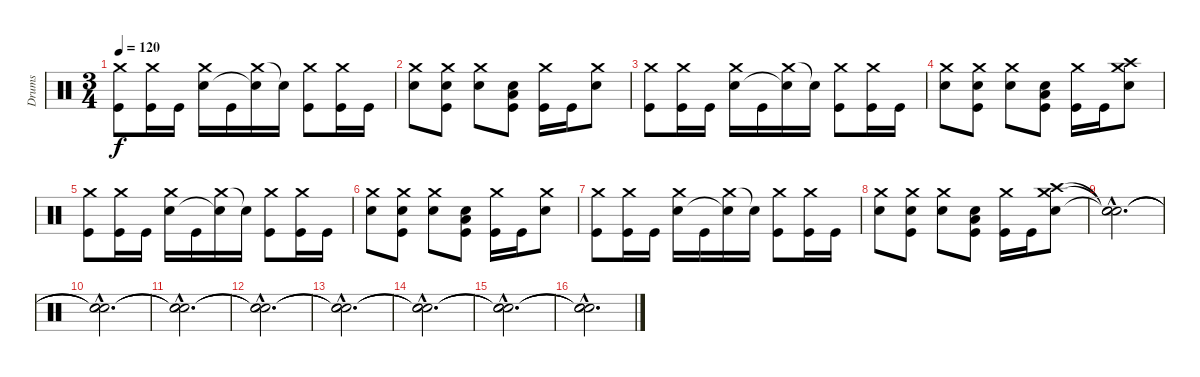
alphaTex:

\track ("Drums" "Drums") {instrument percussion}
\staff {score}
\articulation defaults
\ts (3 4)
\tempo 120
\clef neutral
\ks c
("Crash medium (hit)" "Kick (hit)").8{dy f volume 16} ("Crash medium (hit)" "Kick (hit)").16 "Kick (hit)".16 ("Crash medium (hit)" "Snare (hit) 2").16 "Kick (hit)".16 ("Crash medium (hit)" "Snare (hit)"{t}).16 "Snare (hit)"{t}.16 ("Crash medium (hit)" "Kick (hit)").8 ("Crash medium (hit)" "Kick (hit)").16 "Kick (hit)".16 |
("Crash medium (hit)" "Snare (hit) 2").8 ("Crash medium (hit)" "Snare (hit) 2" "Kick (hit)").8 ("Crash medium (hit)" "Snare (hit) 2").8 ("Low Floor Tom (hit)" "Snare (hit) 2" "Kick (hit)").8 ("Crash medium (hit)" "Kick (hit)").16 "Kick (hit)".16 ("Crash medium (hit)" "Snare (hit) 2").8 |
("Crash medium (hit)" "Kick (hit)").8 ("Crash medium (hit)" "Kick (hit)").16 "Kick (hit)".16 ("Crash medium (hit)" "Snare (hit) 2").16 "Kick (hit)".16 ("Crash medium (hit)" "Snare (hit)"{t}).16 "Snare (hit)"{t}.16 ("Crash medium (hit)" "Kick (hit)").8 ("Crash medium (hit)" "Kick (hit)").16 "Kick (hit)".16 |
("Crash medium (hit)" "Snare (hit) 2").8 ("Crash medium (hit)" "Snare (hit) 2" "Kick (hit)").8 ("Crash medium (hit)" "Snare (hit) 2").8 ("Low Floor Tom (hit)" "Snare (hit) 2" "Kick (hit)").8 ("Crash medium (hit)" "Kick (hit)").16 "Kick (hit)".16 ("Crash high (hit)" "Crash medium (hit)" "Snare (hit) 2").8 |
("Crash medium (hit)" "Kick (hit)").8{volume 16} ("Crash medium (hit)" "Kick (hit)").16 "Kick (hit)".16 ("Crash medium (hit)" "Snare (hit) 2").16 "Kick (hit)".16 ("Crash medium (hit)" "Snare (hit)"{t}).16 "Snare (hit)"{t}.16 ("Crash medium (hit)" "Kick (hit)").8 ("Crash medium (hit)" "Kick (hit)").16 "Kick (hit)".16 |
("Crash medium (hit)" "Snare (hit) 2").8 ("Crash medium (hit)" "Snare (hit) 2" "Kick (hit)").8 ("Crash medium (hit)" "Snare (hit) 2").8 ("Low Floor Tom (hit)" "Snare (hit) 2" "Kick (hit)").8 ("Crash medium (hit)" "Kick (hit)").16 "Kick (hit)".16 ("Crash medium (hit)" "Snare (hit) 2").8 |
("Crash medium (hit)" "Kick (hit)").8 ("Crash medium (hit)" "Kick (hit)").16 "Kick (hit)".16 ("Crash medium (hit)" "Snare (hit) 2").16 "Kick (hit)".16 ("Crash medium (hit)" "Snare (hit)"{t}).16 "Snare (hit)"{t}.16 ("Crash medium (hit)" "Kick (hit)").8 ("Crash medium (hit)" "Kick (hit)").16 "Kick (hit)".16 |
("Crash medium (hit)" "Snare (hit) 2").8 ("Crash medium (hit)" "Snare (hit) 2" "Kick (hit)").8 ("Crash medium (hit)" "Snare (hit) 2").8 ("Low Floor Tom (hit)" "Snare (hit) 2" "Kick (hit)").8 ("Crash medium (hit)" "Kick (hit)").16 "Kick (hit)".16 ("Crash high (hit)" "Crash medium (hit)" "Snare (hit) 2").8 |
("Snare (hit)"{hac t} "Snare (hit)"{hac t} "Snare (hit)"{hac t}).2{d} |
("Snare (hit)"{hac t} "Snare (hit)"{hac t} "Snare (hit)"{hac t}).2{d} |
("Snare (hit)"{hac t} "Snare (hit)"{hac t} "Snare (hit)"{hac t}).2{d} |
("Snare (hit)"{hac t} "Snare (hit)"{hac t} "Snare (hit)"{hac t}).2{d} |
("Snare (hit)"{hac t} "Snare (hit)"{hac t} "Snare (hit)"{hac t}).2{d} |
("Snare (hit)"{hac t} "Snare (hit)"{hac t} "Snare (hit)"{hac t}).2{d} |
("Snare (hit)"{hac t} "Snare (hit)"{hac t} "Snare (hit)"{hac t}).2{d} |
("Snare (hit)"{hac t} "Snare (hit)"{hac t} "Snare (hit)"{hac t}).2{d}
